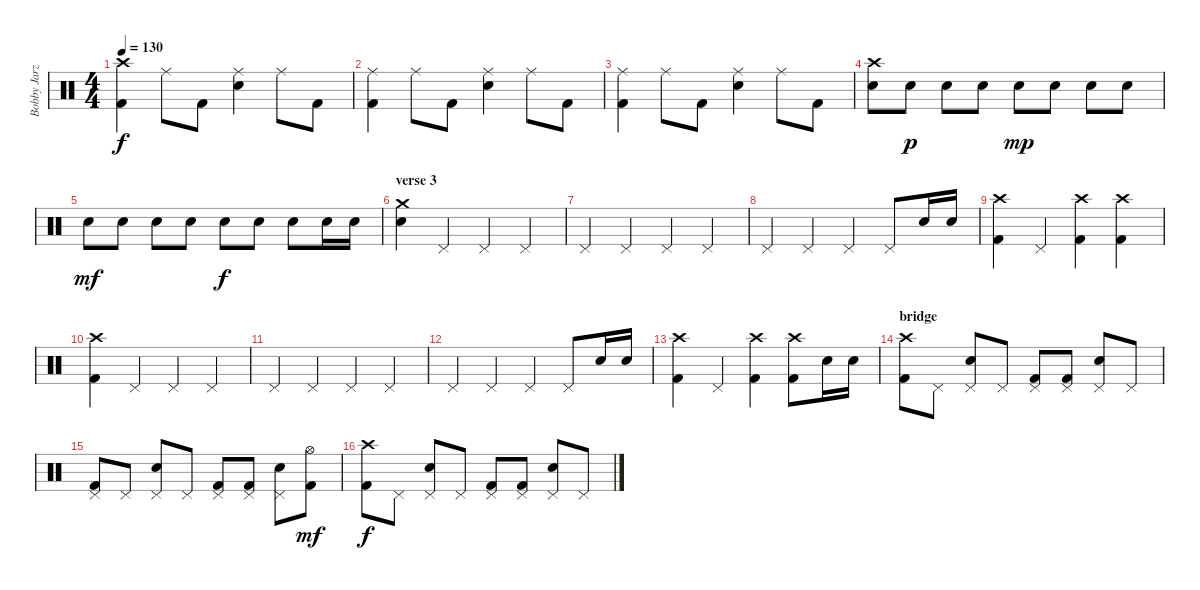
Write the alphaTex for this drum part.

\track ("Bobby Jarzombek" "Bobby Jarz") {instrument percussion}
\staff {score}
\articulation defaults
\ts (4 4)
\tempo 130
\clef neutral
\ks c
("Kick (hit) 2" "Crash high (hit)").4{dy f} "Ride (middle)".8 "Kick (hit) 2".8 ("Ride (middle)" "Snare (hit) 2").4 "Ride (middle)".8 "Kick (hit) 2".8 |
("Kick (hit) 2" "Ride (middle)").4 "Ride (middle)".8 "Kick (hit) 2".8 ("Ride (middle)" "Snare (hit) 2").4 "Ride (middle)".8 "Kick (hit) 2".8 |
("Kick (hit) 2" "Ride (middle)").4 "Ride (middle)".8 "Kick (hit) 2".8 ("Ride (middle)" "Snare (hit) 2").4 "Ride (middle)".8 "Kick (hit) 2".8 |
("Crash high (hit)" "Snare (hit) 2").8 "Snare (hit) 2".8{dy p} "Snare (hit) 2".8 "Snare (hit) 2".8 "Snare (hit) 2".8{dy mp} "Snare (hit) 2".8 "Snare (hit) 2".8 "Snare (hit) 2".8 |
"Snare (hit) 2".8{dy mf} "Snare (hit) 2".8 "Snare (hit) 2".8 "Snare (hit) 2".8 "Snare (hit) 2".8{dy f} "Snare (hit) 2".8 "Snare (hit) 2".8 "Snare (hit) 2".16 "Snare (hit) 2".16 |
\section ("" "verse 3")
("Crash medium (hit)" "Snare (hit) 2").4 "Pedal Hi-Hat (hit)".4 "Pedal Hi-Hat (hit)".4 "Pedal Hi-Hat (hit)".4 |
"Pedal Hi-Hat (hit)".4 "Pedal Hi-Hat (hit)".4 "Pedal Hi-Hat (hit)".4 "Pedal Hi-Hat (hit)".4 |
"Pedal Hi-Hat (hit)".4 "Pedal Hi-Hat (hit)".4 "Pedal Hi-Hat (hit)".4 "Pedal Hi-Hat (hit)".8 "Snare (hit) 2".16 "Snare (hit) 2".16 |
("Kick (hit) 2" "Crash high (hit)").4 "Pedal Hi-Hat (hit)".4 ("Kick (hit) 2" "Crash high (hit)").4 ("Kick (hit) 2" "Crash high (hit)").4 |
("Kick (hit) 2" "Crash high (hit)").4 "Pedal Hi-Hat (hit)".4 "Pedal Hi-Hat (hit)".4 "Pedal Hi-Hat (hit)".4 |
"Pedal Hi-Hat (hit)".4 "Pedal Hi-Hat (hit)".4 "Pedal Hi-Hat (hit)".4 "Pedal Hi-Hat (hit)".4 |
"Pedal Hi-Hat (hit)".4 "Pedal Hi-Hat (hit)".4 "Pedal Hi-Hat (hit)".4 "Pedal Hi-Hat (hit)".8 "Snare (hit) 2".16 "Snare (hit) 2".16 |
("Kick (hit) 2" "Crash high (hit)").4 "Pedal Hi-Hat (hit)".4 ("Kick (hit) 2" "Crash high (hit)").4 ("Kick (hit) 2" "Crash high (hit)").8 "Snare (hit) 2".16 "Snare (hit) 2".16 |
\section ("" "bridge")
("Kick (hit) 2" "Crash high (hit)").8 "Pedal Hi-Hat (hit)".8 ("Pedal Hi-Hat (hit)" "Snare (hit) 2").8 "Pedal Hi-Hat (hit)".8 ("Kick (hit) 2" "Pedal Hi-Hat (hit)").8 ("Kick (hit) 2" "Pedal Hi-Hat (hit)").8 ("Pedal Hi-Hat (hit)" "Snare (hit) 2").8 "Pedal Hi-Hat (hit)".8 |
("Kick (hit) 2" "Pedal Hi-Hat (hit)").8 "Pedal Hi-Hat (hit)".8 ("Pedal Hi-Hat (hit)" "Snare (hit) 2").8 "Pedal Hi-Hat (hit)".8 ("Kick (hit) 2" "Pedal Hi-Hat (hit)").8 ("Kick (hit) 2" "Pedal Hi-Hat (hit)").8 ("Pedal Hi-Hat (hit)" "Snare (hit) 2").8 ("Kick (hit) 2" "Hi-Hat (open)").8{dy mf} |
("Kick (hit) 2" "Crash high (hit)").8{dy f} "Pedal Hi-Hat (hit)".8 ("Pedal Hi-Hat (hit)" "Snare (hit) 2").8 "Pedal Hi-Hat (hit)".8 ("Kick (hit) 2" "Pedal Hi-Hat (hit)").8 ("Kick (hit) 2" "Pedal Hi-Hat (hit)").8 ("Pedal Hi-Hat (hit)" "Snare (hit) 2").8 "Pedal Hi-Hat (hit)".8
